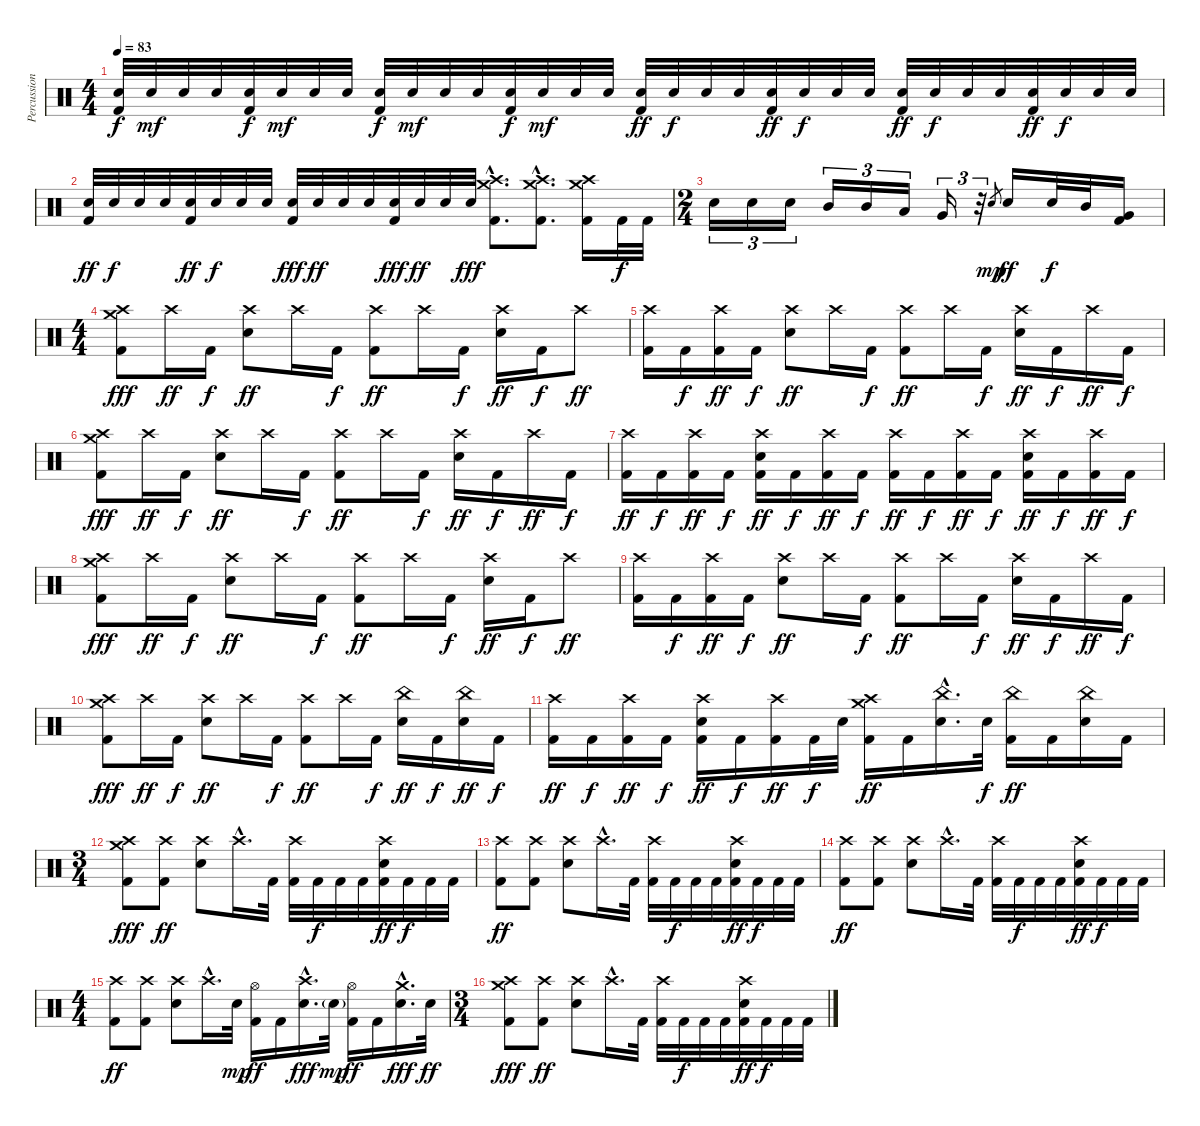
\track ("Percussions" "Percussion") {instrument percussion}
\staff {score}
\articulation defaults
\ts (4 4)
\tempo 83
\clef neutral
\ks c
("Electric Snare (hit)" "Kick (hit) 2").32{dy f} "Electric Snare (hit)".32{dy mf} "Electric Snare (hit)".32 "Electric Snare (hit)".32 ("Electric Snare (hit)" "Kick (hit) 2").32{dy f} "Electric Snare (hit)".32{dy mf} "Electric Snare (hit)".32 "Electric Snare (hit)".32 ("Electric Snare (hit)" "Kick (hit) 2").32{dy f} "Electric Snare (hit)".32{dy mf} "Electric Snare (hit)".32 "Electric Snare (hit)".32 ("Electric Snare (hit)" "Kick (hit) 2").32{dy f} "Electric Snare (hit)".32{dy mf} "Electric Snare (hit)".32 "Electric Snare (hit)".32 ("Electric Snare (hit)" "Kick (hit) 2").32{dy ff} "Electric Snare (hit)".32{dy f} "Electric Snare (hit)".32 "Electric Snare (hit)".32 ("Electric Snare (hit)" "Kick (hit) 2").32{dy ff} "Electric Snare (hit)".32{dy f} "Electric Snare (hit)".32 "Electric Snare (hit)".32 ("Electric Snare (hit)" "Kick (hit) 2").32{dy ff} "Electric Snare (hit)".32{dy f} "Electric Snare (hit)".32 "Electric Snare (hit)".32 ("Electric Snare (hit)" "Kick (hit) 2").32{dy ff} "Electric Snare (hit)".32{dy f} "Electric Snare (hit)".32 "Electric Snare (hit)".32 |
("Electric Snare (hit)" "Kick (hit) 2").32{dy ff} "Electric Snare (hit)".32{dy f} "Electric Snare (hit)".32 "Electric Snare (hit)".32 ("Electric Snare (hit)" "Kick (hit) 2").32{dy ff} "Electric Snare (hit)".32{dy f} "Electric Snare (hit)".32 "Electric Snare (hit)".32 ("Electric Snare (hit)" "Kick (hit) 2").32{dy fff} "Electric Snare (hit)".32{dy ff} "Electric Snare (hit)".32 "Electric Snare (hit)".32 ("Electric Snare (hit)" "Kick (hit) 2").32{dy fff} "Electric Snare (hit)".32{dy ff} "Electric Snare (hit)".32 "Electric Snare (hit)".32{dy fff} ("Crash high (hit)"{hac} "Crash medium (hit)"{hac} "Kick (hit) 2"{hac}).8{d} ("Crash medium (hit)"{hac} "Crash high (hit)"{hac} "Kick (hit) 2"{hac}).8{d} ("Crash high (hit)" "Crash medium (hit)" "Kick (hit) 2").16 "Kick (hit) 2".32{dy f} "Kick (hit) 2".32 |
\ts (2 4)
"Electric Snare (hit)".16{tu (3 2)} "Electric Snare (hit)".16{tu (3 2)} "Electric Snare (hit)".16{tu (3 2)} "Mid Tom (hit)".16{tu (3 2)} "Mid Tom (hit)".16{tu (3 2)} "Low Tom (hit)".16{tu (3 2)} "Very Low Tom (hit)".16{tu (3 2)} r.32{tu (3 2)} "Electric Snare (hit)".8{gr dy mp} "Electric Snare (hit)".16{dy ff} "Electric Snare (hit)".32{dy f} "Mid Tom (hit)".32 ("Very Low Tom (hit)" "Kick (hit) 2").16 |
\ts (4 4)
("Crash medium (hit)" "Crash high (hit)" "Kick (hit) 2").8{dy fff} "Crash high (hit)".16{dy ff} "Kick (hit) 2".16{dy f} ("Crash high (hit)" "Electric Snare (hit)").8{dy ff} "Crash high (hit)".16 "Kick (hit) 2".16{dy f} ("Crash high (hit)" "Kick (hit) 2").8{dy ff} "Crash high (hit)".16 "Kick (hit) 2".16{dy f} ("Crash high (hit)" "Electric Snare (hit)").16{dy ff} "Kick (hit) 2".16{dy f} "Crash high (hit)".8{dy ff} |
("Crash high (hit)" "Kick (hit) 2").16 "Kick (hit) 2".16{dy f} ("Crash high (hit)" "Kick (hit) 2").16{dy ff} "Kick (hit) 2".16{dy f} ("Crash high (hit)" "Electric Snare (hit)").8{dy ff} "Crash high (hit)".16 "Kick (hit) 2".16{dy f} ("Crash high (hit)" "Kick (hit) 2").8{dy ff} "Crash high (hit)".16 "Kick (hit) 2".16{dy f} ("Crash high (hit)" "Electric Snare (hit)").16{dy ff} "Kick (hit) 2".16{dy f} "Crash high (hit)".16{dy ff} "Kick (hit) 2".16{dy f} |
("Crash medium (hit)" "Crash high (hit)" "Kick (hit) 2").8{dy fff} "Crash high (hit)".16{dy ff} "Kick (hit) 2".16{dy f} ("Crash high (hit)" "Electric Snare (hit)").8{dy ff} "Crash high (hit)".16 "Kick (hit) 2".16{dy f} ("Crash high (hit)" "Kick (hit) 2").8{dy ff} "Crash high (hit)".16 "Kick (hit) 2".16{dy f} ("Crash high (hit)" "Electric Snare (hit)").16{dy ff} "Kick (hit) 2".16{dy f} "Crash high (hit)".16{dy ff} "Kick (hit) 2".16{dy f} |
("Crash high (hit)" "Kick (hit) 2").16{dy ff} "Kick (hit) 2".16{dy f} ("Crash high (hit)" "Kick (hit) 2").16{dy ff} "Kick (hit) 2".16{dy f} ("Crash high (hit)" "Electric Snare (hit)" "Kick (hit) 2").16{dy ff} "Kick (hit) 2".16{dy f} ("Crash high (hit)" "Kick (hit) 2").16{dy ff} "Kick (hit) 2".16{dy f} ("Crash high (hit)" "Kick (hit) 2").16{dy ff} "Kick (hit) 2".16{dy f} ("Crash high (hit)" "Kick (hit) 2").16{dy ff} "Kick (hit) 2".16{dy f} ("Crash high (hit)" "Electric Snare (hit)" "Kick (hit) 2").16{dy ff} "Kick (hit) 2".16{dy f} ("Crash high (hit)" "Kick (hit) 2").16{dy ff} "Kick (hit) 2".16{dy f} |
("Crash medium (hit)" "Crash high (hit)" "Kick (hit) 2").8{dy fff} "Crash high (hit)".16{dy ff} "Kick (hit) 2".16{dy f} ("Crash high (hit)" "Electric Snare (hit)").8{dy ff} "Crash high (hit)".16 "Kick (hit) 2".16{dy f} ("Crash high (hit)" "Kick (hit) 2").8{dy ff} "Crash high (hit)".16 "Kick (hit) 2".16{dy f} ("Crash high (hit)" "Electric Snare (hit)").16{dy ff} "Kick (hit) 2".16{dy f} "Crash high (hit)".8{dy ff} |
("Crash high (hit)" "Kick (hit) 2").16 "Kick (hit) 2".16{dy f} ("Crash high (hit)" "Kick (hit) 2").16{dy ff} "Kick (hit) 2".16{dy f} ("Crash high (hit)" "Electric Snare (hit)").8{dy ff} "Crash high (hit)".16 "Kick (hit) 2".16{dy f} ("Crash high (hit)" "Kick (hit) 2").8{dy ff} "Crash high (hit)".16 "Kick (hit) 2".16{dy f} ("Crash high (hit)" "Electric Snare (hit)").16{dy ff} "Kick (hit) 2".16{dy f} "Crash high (hit)".16{dy ff} "Kick (hit) 2".16{dy f} |
("Crash medium (hit)" "Crash high (hit)" "Kick (hit) 2").8{dy fff} "Crash high (hit)".16{dy ff} "Kick (hit) 2".16{dy f} ("Crash high (hit)" "Electric Snare (hit)").8{dy ff} "Crash high (hit)".16 "Kick (hit) 2".16{dy f} ("Crash high (hit)" "Kick (hit) 2").8{dy ff} "Crash high (hit)".16 "Kick (hit) 2".16{dy f} ("China (hit)" "Electric Snare (hit)").16{dy ff} "Kick (hit) 2".16{dy f} ("China (hit)" "Electric Snare (hit)").16{dy ff} "Kick (hit) 2".16{dy f} |
("Crash high (hit)" "Kick (hit) 2").16{dy ff} "Kick (hit) 2".16{dy f} ("Crash high (hit)" "Kick (hit) 2").16{dy ff} "Kick (hit) 2".16{dy f} ("Crash high (hit)" "Electric Snare (hit)" "Kick (hit) 2").16{dy ff} "Kick (hit) 2".16{dy f} ("Crash high (hit)" "Kick (hit) 2").16{dy ff} "Kick (hit) 2".32{dy f} "Electric Snare (hit)".32 ("Crash high (hit)" "Crash medium (hit)" "Kick (hit) 2").16{dy ff} "Kick (hit) 2".16 ("China (hit)"{hac} "Electric Snare (hit)"{hac}).16{d} "Electric Snare (hit)".32{dy f} ("China (hit)" "Kick (hit) 2").16{dy ff} "Kick (hit) 2".16 ("China (hit)" "Electric Snare (hit)").16 "Kick (hit) 2".16 |
\ts (3 4)
("Crash high (hit)" "Crash medium (hit)" "Kick (hit) 2").8{dy fff} ("Crash high (hit)" "Kick (hit) 2").8{dy ff} ("Crash high (hit)" "Electric Snare (hit)").8 "Crash high (hit)"{hac}.16{d} "Kick (hit) 2".32 ("Crash high (hit)" "Kick (hit) 2").32 "Kick (hit) 2".32{dy f} "Kick (hit) 2".32 "Kick (hit) 2".32 ("Crash high (hit)" "Electric Snare (hit)" "Kick (hit) 2").32{dy ff} "Kick (hit) 2".32{dy f} "Kick (hit) 2".32 "Kick (hit) 2".32 |
("Crash high (hit)" "Kick (hit) 2").8{dy ff} ("Crash high (hit)" "Kick (hit) 2").8 ("Crash high (hit)" "Electric Snare (hit)").8 "Crash high (hit)"{hac}.16{d} "Kick (hit) 2".32 ("Crash high (hit)" "Kick (hit) 2").32 "Kick (hit) 2".32{dy f} "Kick (hit) 2".32 "Kick (hit) 2".32 ("Crash high (hit)" "Electric Snare (hit)" "Kick (hit) 2").32{dy ff} "Kick (hit) 2".32{dy f} "Kick (hit) 2".32 "Kick (hit) 2".32 |
("Crash high (hit)" "Kick (hit) 2").8{dy ff} ("Crash high (hit)" "Kick (hit) 2").8 ("Crash high (hit)" "Electric Snare (hit)").8 "Crash high (hit)"{hac}.16{d} "Kick (hit) 2".32 ("Crash high (hit)" "Kick (hit) 2").32 "Kick (hit) 2".32{dy f} "Kick (hit) 2".32 "Kick (hit) 2".32 ("Crash high (hit)" "Electric Snare (hit)" "Kick (hit) 2").32{dy ff} "Kick (hit) 2".32{dy f} "Kick (hit) 2".32 "Kick (hit) 2".32 |
\ts (4 4)
("Crash high (hit)" "Kick (hit) 2").8{dy ff} ("Crash high (hit)" "Kick (hit) 2").8 ("Crash high (hit)" "Electric Snare (hit)").8 "Crash high (hit)"{hac}.16{d} "Electric Snare (hit)".32{dy mp} ("Hi-Hat (open)" "Kick (hit) 2").16{dy ff} "Kick (hit) 2".16 ("Crash high (hit)"{hac} "Electric Snare (hit)"{hac}).16{d dy fff} "Electric Snare (hit)"{g}.32{dy mp} ("Hi-Hat (open)" "Kick (hit) 2").16{dy ff} "Kick (hit) 2".16 ("Crash medium (hit)"{hac} "Electric Snare (hit)"{hac}).16{d dy fff} "Electric Snare (hit)".32{dy ff} |
\ts (3 4)
("Crash high (hit)" "Crash medium (hit)" "Kick (hit) 2").8{dy fff} ("Crash high (hit)" "Kick (hit) 2").8{dy ff} ("Crash high (hit)" "Electric Snare (hit)").8 "Crash high (hit)"{hac}.16{d} "Kick (hit) 2".32 ("Crash high (hit)" "Kick (hit) 2").32 "Kick (hit) 2".32{dy f} "Kick (hit) 2".32 "Kick (hit) 2".32 ("Crash high (hit)" "Electric Snare (hit)" "Kick (hit) 2").32{dy ff} "Kick (hit) 2".32{dy f} "Kick (hit) 2".32 "Kick (hit) 2".32
